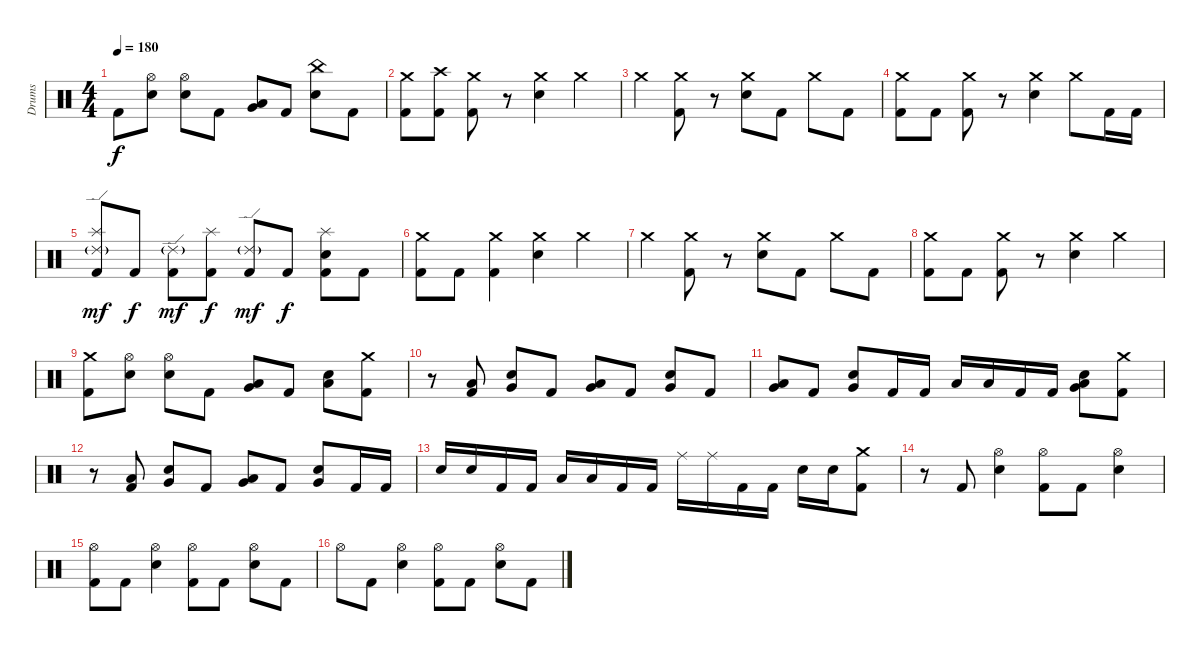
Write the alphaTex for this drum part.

\track ("Drums" "Drums") {instrument percussion}
\staff {score}
\articulation defaults
\ts (4 4)
\tempo 180
\clef neutral
\ks c "Kick (hit) 2".8{dy f}
("Hi-Hat (open)" "Electric Snare (hit)").8 ("Hi-Hat (open)" "Electric Snare (hit)").8 "Kick (hit) 2".8 ("Very Low Tom (hit)" "Low Floor Tom (hit)").8 "Kick (hit) 2".8 ("China (hit)" "Electric Snare (hit)").8 "Kick (hit) 2".8 |
("Crash medium (hit)" "Kick (hit) 2").8 ("Crash high (hit)" "Kick (hit) 2").8 ("Crash medium (hit)" "Kick (hit) 2").8 r.8 ("Crash medium (hit)" "Electric Snare (hit)").4 "Crash medium (hit)".4 |
"Crash medium (hit)".4 ("Crash medium (hit)" "Kick (hit) 2").8 r.8 ("Crash medium (hit)" "Electric Snare (hit)").8 "Kick (hit) 2".8 "Crash medium (hit)".8 "Kick (hit) 2".8 |
("Crash medium (hit)" "Kick (hit) 2").8 "Kick (hit) 2".8 ("Crash medium (hit)" "Kick (hit) 2").8 r.8 ("Crash medium (hit)" "Electric Snare (hit)").4 "Crash medium (hit)".8 "Kick (hit) 2".16 "Kick (hit) 2".16 |
("Splash (hit)" "Ride (edge) 2"{g} "Kick (hit) 2").8{dy mf} "Kick (hit) 2".8{dy f} ("Ride (edge) 2"{g} "Kick (hit) 2").8{dy mf} ("Splash (hit)" "Kick (hit) 2").8{dy f} ("Ride (edge) 2"{g} "Kick (hit) 2").8{dy mf} "Kick (hit) 2".8{dy f} ("Splash (hit)" "Electric Snare (hit)" "Kick (hit) 2").8 "Kick (hit) 2".8 |
("Crash medium (hit)" "Kick (hit) 2").8 "Kick (hit) 2".8 ("Crash medium (hit)" "Kick (hit) 2").4 ("Crash medium (hit)" "Electric Snare (hit)").4 "Crash medium (hit)".4 |
"Crash medium (hit)".4 ("Crash medium (hit)" "Kick (hit) 2").8 r.8 ("Crash medium (hit)" "Electric Snare (hit)").8 "Kick (hit) 2".8 "Crash medium (hit)".8 "Kick (hit) 2".8 |
("Crash medium (hit)" "Kick (hit) 2").8 "Kick (hit) 2".8 ("Crash medium (hit)" "Kick (hit) 2").8 r.8 ("Crash medium (hit)" "Electric Snare (hit)").4 "Crash medium (hit)".4 |
("Crash medium (hit)" "Kick (hit) 2").8 ("Hi-Hat (open)" "Electric Snare (hit)").8 ("Hi-Hat (open)" "Electric Snare (hit)").8 "Kick (hit) 2".8 ("Very Low Tom (hit)" "Low Floor Tom (hit)").8 "Kick (hit) 2".8 ("Low Floor Tom (hit)" "Electric Snare (hit)").8 ("Crash medium (hit)" "Kick (hit) 2").8 |
r.8 ("Low Tom (hit)" "Kick (hit) 2").8 ("Very Low Tom (hit)" "Electric Snare (hit)").8 "Kick (hit) 2".8 ("Low Tom (hit)" "Very Low Tom (hit)").8 "Kick (hit) 2".8 ("Very Low Tom (hit)" "Electric Snare (hit)").8 "Kick (hit) 2".8 |
("Very Low Tom (hit)" "Low Floor Tom (hit)").8 "Kick (hit) 2".8 ("Very Low Tom (hit)" "Electric Snare (hit)").8 "Kick (hit) 2".16 "Kick (hit) 2".16 "Low Tom (hit)".16 "Low Tom (hit)".16 "Kick (hit) 2".16 "Kick (hit) 2".16 ("Very Low Tom (hit)" "Low Floor Tom (hit)" "Electric Snare (hit)").8 ("Crash medium (hit)" "Kick (hit) 2").8 |
r.8 ("Low Tom (hit)" "Kick (hit) 2").8 ("Very Low Tom (hit)" "Electric Snare (hit)").8 "Kick (hit) 2".8 ("Low Tom (hit)" "Very Low Tom (hit)").8 "Kick (hit) 2".8 ("Very Low Tom (hit)" "Electric Snare (hit)").8 "Kick (hit) 2".16 "Kick (hit) 2".16 |
"Electric Snare (hit)".16 "Electric Snare (hit)".16 "Kick (hit) 2".16 "Kick (hit) 2".16 "Low Tom (hit)".16 "Low Tom (hit)".16 "Kick (hit) 2".16 "Kick (hit) 2".16 "Ride (middle)".16 "Ride (middle)".16 "Kick (hit) 2".16 "Kick (hit) 2".16 "Electric Snare (hit)".16 "Electric Snare (hit)".16 ("Crash medium (hit)" "Kick (hit) 2").8 |
r.8 "Kick (hit) 2".8 ("Hi-Hat (open)" "Electric Snare (hit)").4 ("Hi-Hat (open)" "Kick (hit) 2").8 "Kick (hit) 2".8 ("Hi-Hat (open)" "Electric Snare (hit)").4 |
("Hi-Hat (open)" "Kick (hit) 2").8 "Kick (hit) 2".8 ("Hi-Hat (open)" "Electric Snare (hit)").4 ("Hi-Hat (open)" "Kick (hit) 2").8 "Kick (hit) 2".8 ("Hi-Hat (open)" "Electric Snare (hit)").8 "Kick (hit) 2".8 |
"Hi-Hat (open)".8 "Kick (hit) 2".8 ("Hi-Hat (open)" "Electric Snare (hit)").4 ("Hi-Hat (open)" "Kick (hit) 2").8 "Kick (hit) 2".8 ("Hi-Hat (open)" "Electric Snare (hit)").8 "Kick (hit) 2".8
